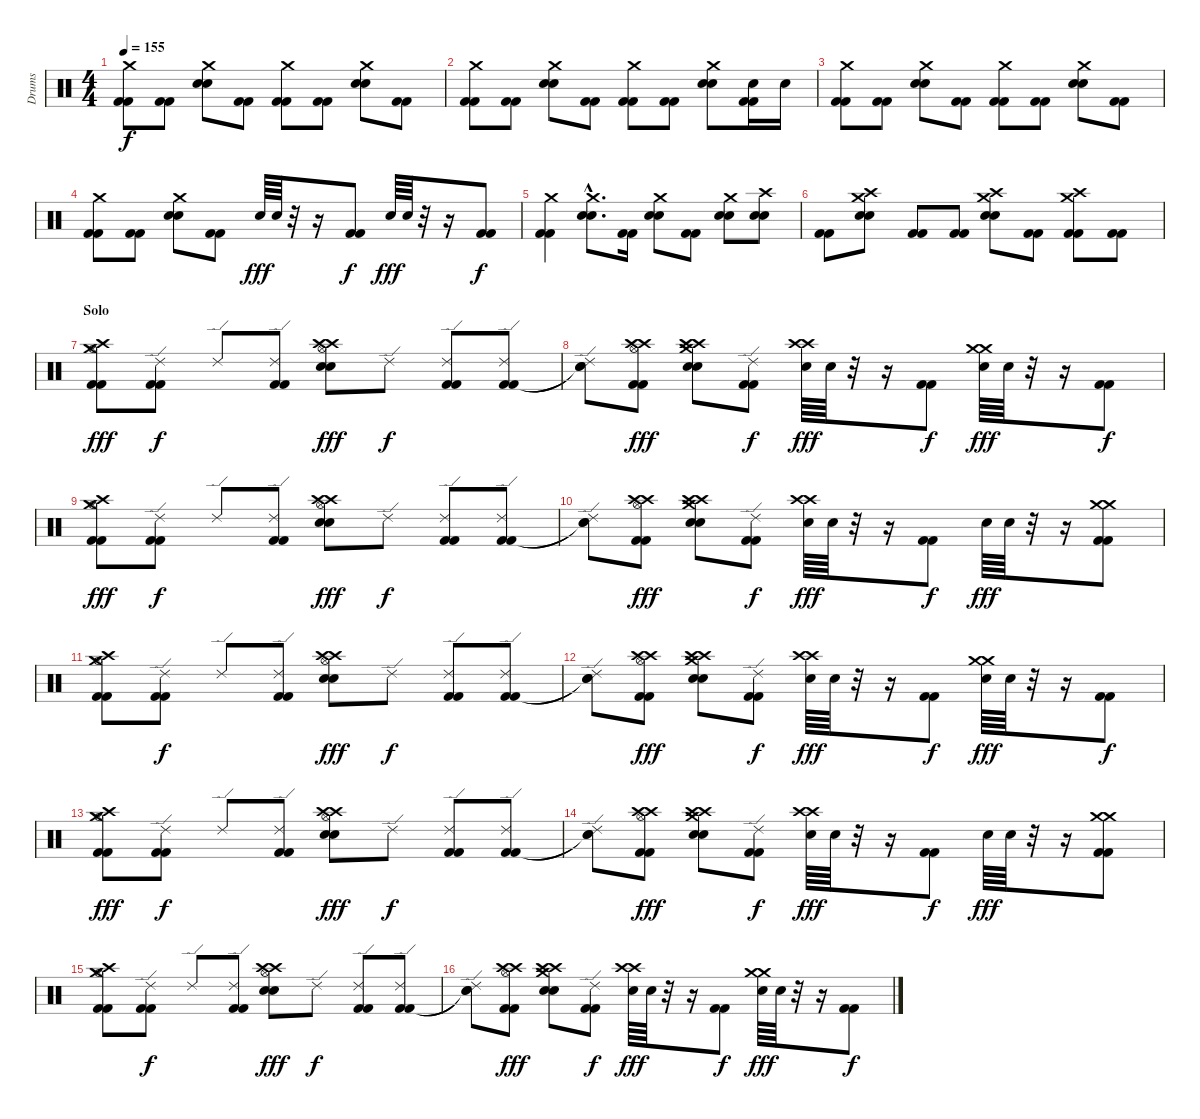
\track ("Drums" "Drums") {instrument percussion}
\staff {score}
\articulation defaults
\ts (4 4)
\tempo 155
\clef neutral
\ks c
("Crash medium (hit)" "Kick (hit) 2" "Kick (hit) 2").8{dy f} ("Kick (hit) 2" "Kick (hit) 2").8 ("Crash medium (hit)" "Snare (hit) 2" "Electric Snare (hit)").8 ("Kick (hit) 2" "Kick (hit) 2").8 ("Crash medium (hit)" "Kick (hit) 2" "Kick (hit) 2").8 ("Kick (hit) 2" "Kick (hit) 2").8 ("Crash medium (hit)" "Snare (hit) 2" "Electric Snare (hit)").8 ("Kick (hit) 2" "Kick (hit) 2").8 |
("Crash medium (hit)" "Kick (hit) 2" "Kick (hit) 2").8 ("Kick (hit) 2" "Kick (hit) 2").8 ("Crash medium (hit)" "Snare (hit) 2" "Electric Snare (hit)").8 ("Kick (hit) 2" "Kick (hit) 2").8 ("Crash medium (hit)" "Kick (hit) 2" "Kick (hit) 2").8 ("Kick (hit) 2" "Kick (hit) 2").8 ("Crash medium (hit)" "Snare (hit) 2" "Electric Snare (hit)").8 ("Electric Snare (hit)" "Kick (hit) 2" "Kick (hit) 2").16 "Electric Snare (hit)".16 |
("Crash medium (hit)" "Kick (hit) 2" "Kick (hit) 2").8 ("Kick (hit) 2" "Kick (hit) 2").8 ("Crash medium (hit)" "Snare (hit) 2" "Electric Snare (hit)").8 ("Kick (hit) 2" "Kick (hit) 2").8 ("Crash medium (hit)" "Kick (hit) 2" "Kick (hit) 2").8 ("Kick (hit) 2" "Kick (hit) 2").8 ("Crash medium (hit)" "Snare (hit) 2" "Electric Snare (hit)").8 ("Kick (hit) 2" "Kick (hit) 2").8 |
("Crash medium (hit)" "Kick (hit) 2" "Kick (hit) 2").8 ("Kick (hit) 2" "Kick (hit) 2").8 ("Crash medium (hit)" "Snare (hit) 2" "Electric Snare (hit)").8 ("Kick (hit) 2" "Kick (hit) 2").8 "Snare (hit) 2".64{dy fff} "Electric Snare (hit)".64 r.32 r.16 ("Kick (hit) 2" "Kick (hit) 2").8{dy f} "Snare (hit) 2".64{dy fff} "Electric Snare (hit)".64 r.32 r.16 ("Kick (hit) 2" "Kick (hit) 2").8{dy f} |
("Crash medium (hit)" "Kick (hit) 2" "Kick (hit) 2").4 ("Crash medium (hit)"{hac} "Snare (hit) 2"{hac} "Electric Snare (hit)"{hac}).8{d} ("Kick (hit) 2" "Kick (hit) 2").16 ("Crash medium (hit)" "Snare (hit) 2" "Electric Snare (hit)").8 ("Kick (hit) 2" "Kick (hit) 2").8 ("Crash medium (hit)" "Snare (hit) 2" "Electric Snare (hit)").8 ("Crash high (hit)" "Snare (hit) 2" "Electric Snare (hit)").8 |
("Kick (hit) 2" "Kick (hit) 2").8 ("Crash high (hit)" "Crash medium (hit)" "Snare (hit) 2" "Electric Snare (hit)").8 ("Kick (hit) 2" "Kick (hit) 2").8 ("Kick (hit) 2" "Kick (hit) 2").8 ("Crash high (hit)" "Crash medium (hit)" "Snare (hit) 2" "Electric Snare (hit)").8 ("Kick (hit) 2" "Kick (hit) 2").8 ("Crash medium (hit)" "Crash high (hit)" "Kick (hit) 2" "Kick (hit) 2").8 ("Kick (hit) 2" "Kick (hit) 2").8 |
\section ("" "Solo")
("Crash high (hit)" "Crash medium (hit)" "Hi-Hat (open)" "Kick (hit) 2" "Kick (hit) 2").8{dy fff} ("Ride (edge) 2" "Kick (hit) 2" "Kick (hit) 2").8{dy f} "Ride (edge) 2".8 ("Ride (edge) 2" "Kick (hit) 2" "Kick (hit) 2").8 ("Crash high (hit)" "Crash high (hit)" "Hi-Hat (open)" "Snare (hit) 2" "Electric Snare (hit)").8{dy fff} "Ride (edge) 2".8{dy f} ("Ride (edge) 2" "Kick (hit) 2" "Kick (hit) 2").8 ("Ride (edge) 2" "Kick (hit) 2" "Kick (hit) 2").8 |
("Ride (edge) 2" "Snare (hit)"{t} "Snare (hit)"{t}).8 ("Crash high (hit)" "Crash high (hit)" "Hi-Hat (open)" "Kick (hit) 2" "Kick (hit) 2").8{dy fff} ("Crash high (hit)" "Crash high (hit)" "Crash medium (hit)" "Electric Snare (hit)" "Snare (hit) 2").8 ("Ride (edge) 2" "Kick (hit) 2" "Kick (hit) 2").8{dy f} ("Crash high (hit)" "Crash high (hit)" "Snare (hit) 2").64{dy fff} "Electric Snare (hit)".64 r.32 r.16 ("Kick (hit) 2" "Kick (hit) 2").8{dy f} ("Crash medium (hit)" "Crash medium (hit)" "Snare (hit) 2").64{dy fff} "Electric Snare (hit)".64 r.32 r.16 ("Kick (hit) 2" "Kick (hit) 2").8{dy f} |
("Crash high (hit)" "Crash medium (hit)" "Hi-Hat (open)" "Kick (hit) 2" "Kick (hit) 2").8{dy fff} ("Ride (edge) 2" "Kick (hit) 2" "Kick (hit) 2").8{dy f} "Ride (edge) 2".8 ("Ride (edge) 2" "Kick (hit) 2" "Kick (hit) 2").8 ("Crash high (hit)" "Crash high (hit)" "Hi-Hat (open)" "Snare (hit) 2" "Electric Snare (hit)").8{dy fff} "Ride (edge) 2".8{dy f} ("Ride (edge) 2" "Kick (hit) 2" "Kick (hit) 2").8 ("Ride (edge) 2" "Kick (hit) 2" "Kick (hit) 2").8 |
("Ride (edge) 2" "Snare (hit)"{t} "Snare (hit)"{t}).8 ("Crash high (hit)" "Crash high (hit)" "Hi-Hat (open)" "Kick (hit) 2" "Kick (hit) 2").8{dy fff} ("Crash high (hit)" "Crash high (hit)" "Crash medium (hit)" "Electric Snare (hit)" "Snare (hit) 2").8 ("Ride (edge) 2" "Kick (hit) 2" "Kick (hit) 2").8{dy f} ("Crash high (hit)" "Crash high (hit)" "Snare (hit) 2").64{dy fff} "Electric Snare (hit)".64 r.32 r.16 ("Kick (hit) 2" "Kick (hit) 2").8{dy f} "Snare (hit) 2".64{dy fff} "Electric Snare (hit)".64 r.32 r.16 ("Crash medium (hit)" "Crash medium (hit)" "Kick (hit) 2" "Kick (hit) 2").8 |
("Crash high (hit)" "Crash medium (hit)" "Hi-Hat (open)" "Kick (hit) 2" "Kick (hit) 2").8 ("Ride (edge) 2" "Kick (hit) 2" "Kick (hit) 2").8{dy f} "Ride (edge) 2".8 ("Ride (edge) 2" "Kick (hit) 2" "Kick (hit) 2").8 ("Crash high (hit)" "Crash high (hit)" "Hi-Hat (open)" "Snare (hit) 2" "Electric Snare (hit)").8{dy fff} "Ride (edge) 2".8{dy f} ("Ride (edge) 2" "Kick (hit) 2" "Kick (hit) 2").8 ("Ride (edge) 2" "Kick (hit) 2" "Kick (hit) 2").8 |
("Ride (edge) 2" "Snare (hit)"{t} "Snare (hit)"{t}).8 ("Crash high (hit)" "Crash high (hit)" "Hi-Hat (open)" "Kick (hit) 2" "Kick (hit) 2").8{dy fff} ("Crash high (hit)" "Crash high (hit)" "Crash medium (hit)" "Electric Snare (hit)" "Snare (hit) 2").8 ("Ride (edge) 2" "Kick (hit) 2" "Kick (hit) 2").8{dy f} ("Crash high (hit)" "Crash high (hit)" "Snare (hit) 2").64{dy fff} "Electric Snare (hit)".64 r.32 r.16 ("Kick (hit) 2" "Kick (hit) 2").8{dy f} ("Crash medium (hit)" "Crash medium (hit)" "Snare (hit) 2").64{dy fff} "Electric Snare (hit)".64 r.32 r.16 ("Kick (hit) 2" "Kick (hit) 2").8{dy f} |
("Crash high (hit)" "Crash medium (hit)" "Hi-Hat (open)" "Kick (hit) 2" "Kick (hit) 2").8{dy fff} ("Ride (edge) 2" "Kick (hit) 2" "Kick (hit) 2").8{dy f} "Ride (edge) 2".8 ("Ride (edge) 2" "Kick (hit) 2" "Kick (hit) 2").8 ("Crash high (hit)" "Crash high (hit)" "Hi-Hat (open)" "Snare (hit) 2" "Electric Snare (hit)").8{dy fff} "Ride (edge) 2".8{dy f} ("Ride (edge) 2" "Kick (hit) 2" "Kick (hit) 2").8 ("Ride (edge) 2" "Kick (hit) 2" "Kick (hit) 2").8 |
("Ride (edge) 2" "Snare (hit)"{t} "Snare (hit)"{t}).8 ("Crash high (hit)" "Crash high (hit)" "Hi-Hat (open)" "Kick (hit) 2" "Kick (hit) 2").8{dy fff} ("Crash high (hit)" "Crash high (hit)" "Crash medium (hit)" "Electric Snare (hit)" "Snare (hit) 2").8 ("Ride (edge) 2" "Kick (hit) 2" "Kick (hit) 2").8{dy f} ("Crash high (hit)" "Crash high (hit)" "Snare (hit) 2").64{dy fff} "Electric Snare (hit)".64 r.32 r.16 ("Kick (hit) 2" "Kick (hit) 2").8{dy f} "Snare (hit) 2".64{dy fff} "Electric Snare (hit)".64 r.32 r.16 ("Crash medium (hit)" "Crash medium (hit)" "Kick (hit) 2" "Kick (hit) 2").8 |
("Crash high (hit)" "Crash medium (hit)" "Hi-Hat (open)" "Kick (hit) 2" "Kick (hit) 2").8 ("Ride (edge) 2" "Kick (hit) 2" "Kick (hit) 2").8{dy f} "Ride (edge) 2".8 ("Ride (edge) 2" "Kick (hit) 2" "Kick (hit) 2").8 ("Crash high (hit)" "Crash high (hit)" "Hi-Hat (open)" "Snare (hit) 2" "Electric Snare (hit)").8{dy fff} "Ride (edge) 2".8{dy f} ("Ride (edge) 2" "Kick (hit) 2" "Kick (hit) 2").8 ("Ride (edge) 2" "Kick (hit) 2" "Kick (hit) 2").8 |
("Ride (edge) 2" "Snare (hit)"{t} "Snare (hit)"{t}).8 ("Crash high (hit)" "Crash high (hit)" "Hi-Hat (open)" "Kick (hit) 2" "Kick (hit) 2").8{dy fff} ("Crash high (hit)" "Crash high (hit)" "Crash medium (hit)" "Electric Snare (hit)" "Snare (hit) 2").8 ("Ride (edge) 2" "Kick (hit) 2" "Kick (hit) 2").8{dy f} ("Crash high (hit)" "Crash high (hit)" "Snare (hit) 2").64{dy fff} "Electric Snare (hit)".64 r.32 r.16 ("Kick (hit) 2" "Kick (hit) 2").8{dy f} ("Crash medium (hit)" "Crash medium (hit)" "Snare (hit) 2").64{dy fff} "Electric Snare (hit)".64 r.32 r.16 ("Kick (hit) 2" "Kick (hit) 2").8{dy f}
